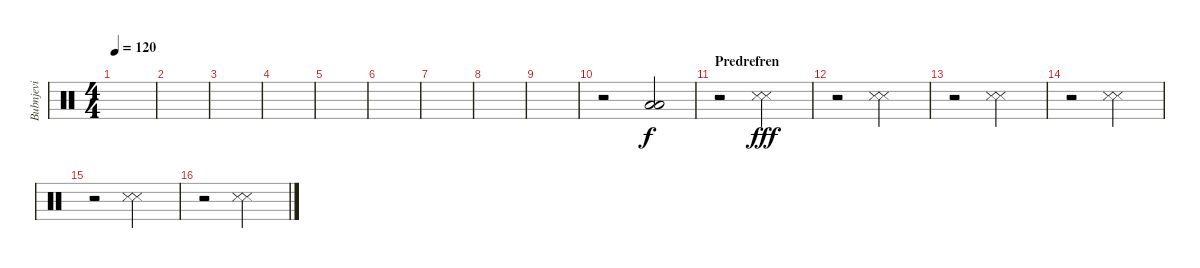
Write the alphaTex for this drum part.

\track ("Bubnjevi" "Bubnjevi") {instrument percussion}
\staff {score}
\articulation defaults
\ts (4 4)
\tempo 120
\clef neutral
\ks c
|
|
|
|
|
|
|
|
|
r.2 ("Low Tom (hit)" "Low Tom (hit)").2 |
\section ("" "Predrefren")
r.2 ("Snare (side stick) 3" "Snare (side stick) 3").2{dy fff} |
r.2 ("Snare (side stick) 3" "Snare (side stick) 3").2 |
r.2 ("Snare (side stick) 3" "Snare (side stick) 3").2 |
r.2 ("Snare (side stick) 3" "Snare (side stick) 3").2 |
r.2 ("Snare (side stick) 3" "Snare (side stick) 3").2 |
r.2 ("Snare (side stick) 3" "Snare (side stick) 3").2
